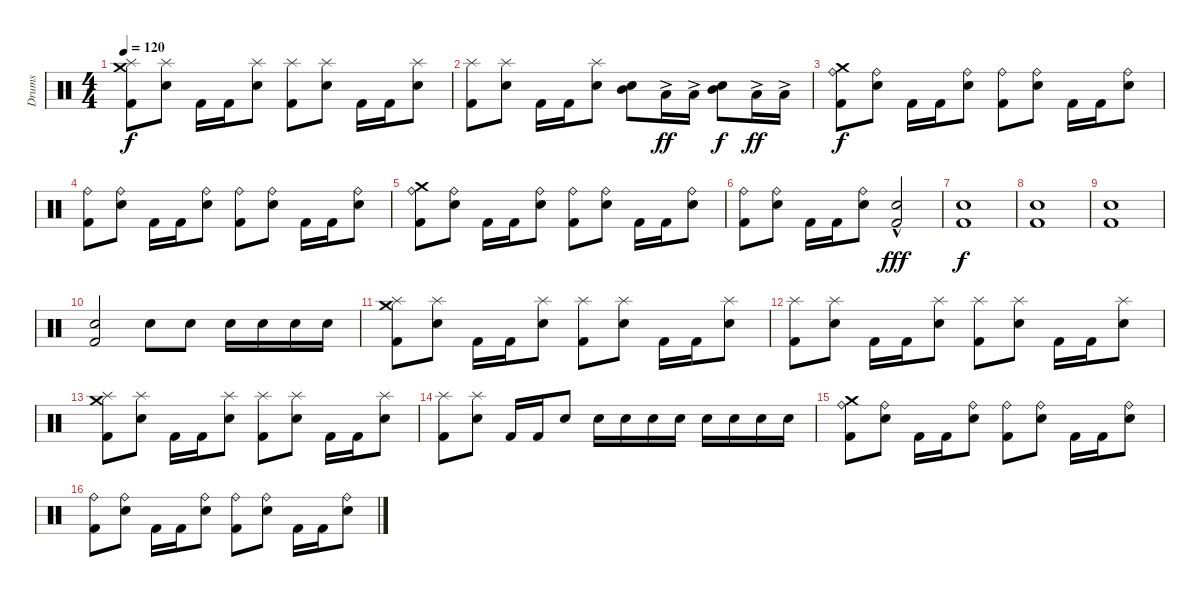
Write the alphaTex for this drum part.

\track ("Drums" "Drums") {instrument percussion}
\staff {score}
\articulation defaults
\ts (4 4)
\tempo 120
\clef neutral
\ks c
("Splash (hit)" "Crash medium (hit)" "Kick (hit) 2").8{dy f} ("Splash (hit)" "Snare (hit) 2").8 "Kick (hit) 2".16 "Kick (hit) 2".16 ("Splash (hit)" "Snare (hit) 2").8 ("Splash (hit)" "Kick (hit) 2").8 ("Splash (hit)" "Snare (hit) 2").8 "Kick (hit) 2".16 "Kick (hit) 2".16 ("Splash (hit)" "Snare (hit) 2").8 |
("Splash (hit)" "Kick (hit) 2").8 ("Splash (hit)" "Snare (hit) 2").8 "Kick (hit) 2".16 "Kick (hit) 2".16 ("Splash (hit)" "Snare (hit) 2").8 ("Mid Tom (hit)" "Snare (hit) 2").8 "Low Tom (hit)"{ac}.16{dy ff} "Low Tom (hit)"{ac}.16 ("Mid Tom (hit)" "Snare (hit) 2").8{dy f} "Low Tom (hit)"{ac}.16{dy ff} "Low Tom (hit)"{ac}.16 |
("Ride (bell)" "Crash medium (hit)" "Kick (hit) 2").8{dy f} ("Ride (bell)" "Snare (hit) 2").8 "Kick (hit) 2".16 "Kick (hit) 2".16 ("Ride (bell)" "Snare (hit) 2").8 ("Ride (bell)" "Kick (hit) 2").8 ("Ride (bell)" "Snare (hit) 2").8 "Kick (hit) 2".16 "Kick (hit) 2".16 ("Ride (bell)" "Snare (hit) 2").8 |
("Ride (bell)" "Kick (hit) 2").8 ("Ride (bell)" "Snare (hit) 2").8 "Kick (hit) 2".16 "Kick (hit) 2".16 ("Ride (bell)" "Snare (hit) 2").8 ("Ride (bell)" "Kick (hit) 2").8 ("Ride (bell)" "Snare (hit) 2").8 "Kick (hit) 2".16 "Kick (hit) 2".16 ("Ride (bell)" "Snare (hit) 2").8 |
("Ride (bell)" "Crash medium (hit)" "Kick (hit) 2").8 ("Ride (bell)" "Snare (hit) 2").8 "Kick (hit) 2".16 "Kick (hit) 2".16 ("Ride (bell)" "Snare (hit) 2").8 ("Ride (bell)" "Kick (hit) 2").8 ("Ride (bell)" "Snare (hit) 2").8 "Kick (hit) 2".16 "Kick (hit) 2".16 ("Ride (bell)" "Snare (hit) 2").8 |
("Ride (bell)" "Kick (hit) 2").8 ("Ride (bell)" "Snare (hit) 2").8 "Kick (hit) 2".16 "Kick (hit) 2".16 ("Ride (bell)" "Snare (hit) 2").8 ("Snare (hit) 2"{hac} "Kick (hit) 2"{hac}).2{dy fff} |
("Snare (hit) 2" "Kick (hit) 2").1{dy f} |
("Snare (hit) 2" "Kick (hit) 2").1 |
("Snare (hit) 2" "Kick (hit) 2").1 |
("Snare (hit) 2" "Kick (hit) 2").2 "Snare (hit) 2".8 "Snare (hit) 2".8 "Snare (hit) 2".16 "Snare (hit) 2".16 "Snare (hit) 2".16 "Snare (hit) 2".16 |
("Splash (hit)" "Crash medium (hit)" "Kick (hit) 2").8 ("Splash (hit)" "Snare (hit) 2").8 "Kick (hit) 2".16 "Kick (hit) 2".16 ("Splash (hit)" "Snare (hit) 2").8 ("Splash (hit)" "Kick (hit) 2").8 ("Splash (hit)" "Snare (hit) 2").8 "Kick (hit) 2".16 "Kick (hit) 2".16 ("Splash (hit)" "Snare (hit) 2").8 |
("Splash (hit)" "Kick (hit) 2").8 ("Splash (hit)" "Snare (hit) 2").8 "Kick (hit) 2".16 "Kick (hit) 2".16 ("Splash (hit)" "Snare (hit) 2").8 ("Splash (hit)" "Kick (hit) 2").8 ("Splash (hit)" "Snare (hit) 2").8 "Kick (hit) 2".16 "Kick (hit) 2".16 ("Splash (hit)" "Snare (hit) 2").8 |
("Splash (hit)" "Crash medium (hit)" "Kick (hit) 2").8 ("Splash (hit)" "Snare (hit) 2").8 "Kick (hit) 2".16 "Kick (hit) 2".16 ("Splash (hit)" "Snare (hit) 2").8 ("Splash (hit)" "Kick (hit) 2").8 ("Splash (hit)" "Snare (hit) 2").8 "Kick (hit) 2".16 "Kick (hit) 2".16 ("Splash (hit)" "Snare (hit) 2").8 |
("Splash (hit)" "Kick (hit) 2").8 ("Splash (hit)" "Snare (hit) 2").8 "Kick (hit) 2".16 "Kick (hit) 2".16 "Snare (hit) 2".8 "Snare (hit) 2".16 "Snare (hit) 2".16 "Snare (hit) 2".16 "Snare (hit) 2".16 "Snare (hit) 2".16 "Snare (hit) 2".16 "Snare (hit) 2".16 "Snare (hit) 2".16 |
("Ride (bell)" "Crash medium (hit)" "Kick (hit) 2").8 ("Ride (bell)" "Snare (hit) 2").8 "Kick (hit) 2".16 "Kick (hit) 2".16 ("Ride (bell)" "Snare (hit) 2").8 ("Ride (bell)" "Kick (hit) 2").8 ("Ride (bell)" "Snare (hit) 2").8 "Kick (hit) 2".16 "Kick (hit) 2".16 ("Ride (bell)" "Snare (hit) 2").8 |
("Ride (bell)" "Kick (hit) 2").8 ("Ride (bell)" "Snare (hit) 2").8 "Kick (hit) 2".16 "Kick (hit) 2".16 ("Ride (bell)" "Snare (hit) 2").8 ("Ride (bell)" "Kick (hit) 2").8 ("Ride (bell)" "Snare (hit) 2").8 "Kick (hit) 2".16 "Kick (hit) 2".16 ("Ride (bell)" "Snare (hit) 2").8
